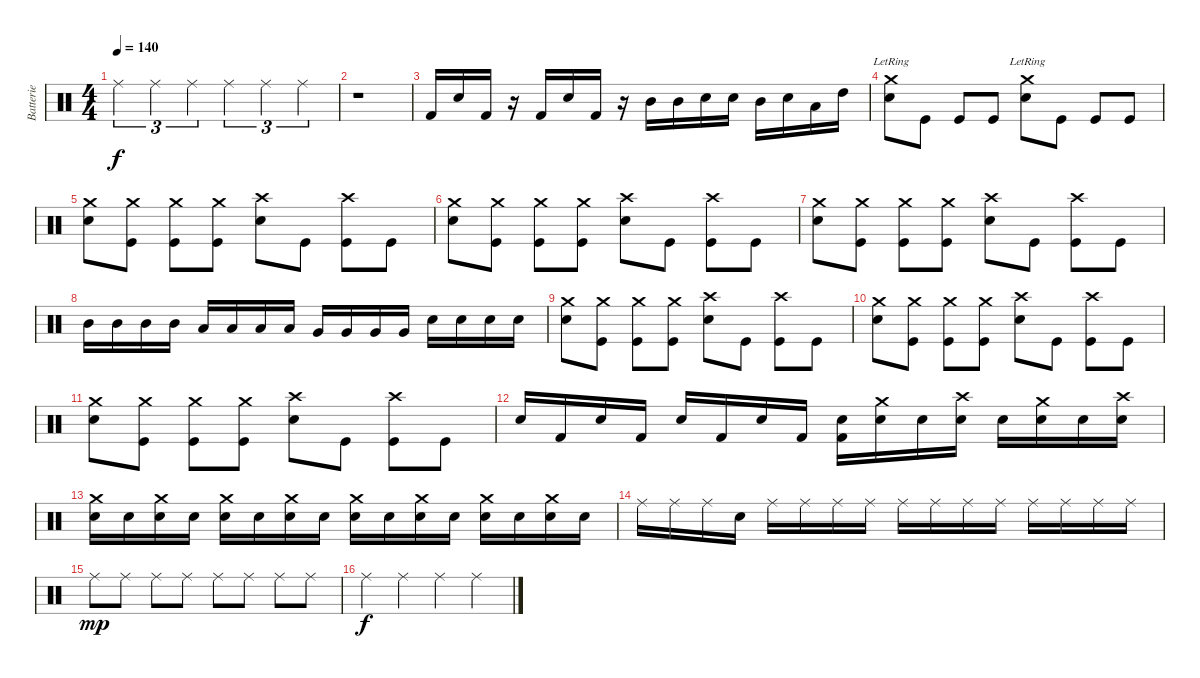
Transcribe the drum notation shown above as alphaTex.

\track ("Batterie" "Batterie") {instrument percussion}
\staff {score}
\articulation defaults
\ts (4 4)
\tempo 140
\clef neutral
\ks c "Ride (middle)".4{tu (3 2) dy f} "Ride (middle)".4{tu (3 2)} "Ride (middle)".4{tu (3 2)} "Ride (middle)".4{tu (3 2)} "Ride (middle)".4{tu (3 2)} "Ride (middle)".4{tu (3 2)}
|
r.1 |
"Kick (hit) 2".16 "Snare (hit) 2".16 "Kick (hit) 2".16 r.16 "Kick (hit) 2".16 "Snare (hit) 2".16 "Kick (hit) 2".16 r.16 "Mid Tom (hit)".16 "Mid Tom (hit)".16 "Snare (hit) 2".16 "Snare (hit) 2".16 "Mid Tom (hit)".16 "Snare (hit) 2".16 "Low Tom (hit)".16 "High Tom (hit)".16 |
("Crash medium (hit)"{lr} "Snare (hit) 2").8 "Kick (hit)".8 "Kick (hit)".8 "Kick (hit)".8 ("Crash medium (hit)"{lr} "Snare (hit) 2").8 "Kick (hit)".8 "Kick (hit)".8 "Kick (hit)".8 |
("Crash medium (hit)" "Snare (hit) 2").8 ("Crash medium (hit)" "Kick (hit)").8 ("Crash medium (hit)" "Kick (hit)").8 ("Crash medium (hit)" "Kick (hit)").8 ("Crash high (hit)" "Snare (hit) 2").8 "Kick (hit)".8 ("Crash high (hit)" "Kick (hit)").8 "Kick (hit)".8 |
("Crash medium (hit)" "Snare (hit) 2").8 ("Crash medium (hit)" "Kick (hit)").8 ("Crash medium (hit)" "Kick (hit)").8 ("Crash medium (hit)" "Kick (hit)").8 ("Crash high (hit)" "Snare (hit) 2").8 "Kick (hit)".8 ("Crash high (hit)" "Kick (hit)").8 "Kick (hit)".8 |
("Crash medium (hit)" "Snare (hit) 2").8 ("Crash medium (hit)" "Kick (hit)").8 ("Crash medium (hit)" "Kick (hit)").8 ("Crash medium (hit)" "Kick (hit)").8 ("Crash high (hit)" "Snare (hit) 2").8 "Kick (hit)".8 ("Crash high (hit)" "Kick (hit)").8 "Kick (hit)".8 |
"Mid Tom (hit)".16 "Mid Tom (hit)".16 "Mid Tom (hit)".16 "Mid Tom (hit)".16 "Low Tom (hit)".16 "Low Tom (hit)".16 "Low Tom (hit)".16 "Low Tom (hit)".16 "Very Low Tom (hit)".16 "Very Low Tom (hit)".16 "Very Low Tom (hit)".16 "Very Low Tom (hit)".16 "Snare (hit) 2".16 "Snare (hit) 2".16 "Snare (hit) 2".16 "Snare (hit) 2".16 |
("Crash medium (hit)" "Snare (hit) 2").8 ("Crash medium (hit)" "Kick (hit)").8 ("Crash medium (hit)" "Kick (hit)").8 ("Crash medium (hit)" "Kick (hit)").8 ("Crash high (hit)" "Snare (hit) 2").8 "Kick (hit)".8 ("Crash high (hit)" "Kick (hit)").8 "Kick (hit)".8 |
("Crash medium (hit)" "Snare (hit) 2").8 ("Crash medium (hit)" "Kick (hit)").8 ("Crash medium (hit)" "Kick (hit)").8 ("Crash medium (hit)" "Kick (hit)").8 ("Crash high (hit)" "Snare (hit) 2").8 "Kick (hit)".8 ("Crash high (hit)" "Kick (hit)").8 "Kick (hit)".8 |
("Crash medium (hit)" "Snare (hit) 2").8 ("Crash medium (hit)" "Kick (hit)").8 ("Crash medium (hit)" "Kick (hit)").8 ("Crash medium (hit)" "Kick (hit)").8 ("Crash high (hit)" "Snare (hit) 2").8 "Kick (hit)".8 ("Crash high (hit)" "Kick (hit)").8 "Kick (hit)".8 |
"Snare (hit) 2".16 "Kick (hit) 2".16 "Snare (hit) 2".16 "Kick (hit) 2".16 "Snare (hit) 2".16 "Kick (hit) 2".16 "Snare (hit) 2".16 "Kick (hit) 2".16 ("Snare (hit) 2" "Kick (hit) 2").16 ("Crash medium (hit)" "Snare (hit) 2").16 "Snare (hit) 2".16 ("Crash high (hit)" "Snare (hit) 2").16 "Snare (hit) 2".16 ("Crash medium (hit)" "Snare (hit) 2").16 "Snare (hit) 2".16 ("Crash high (hit)" "Snare (hit) 2").16 |
("Crash medium (hit)" "Snare (hit) 2").16 "Snare (hit) 2".16 ("Crash medium (hit)" "Snare (hit) 2").16 "Snare (hit) 2".16 ("Crash medium (hit)" "Snare (hit) 2").16 "Snare (hit) 2".16 ("Crash medium (hit)" "Snare (hit) 2").16 "Snare (hit) 2".16 ("Crash medium (hit)" "Snare (hit) 2").16 "Snare (hit) 2".16 ("Crash medium (hit)" "Snare (hit) 2").16 "Snare (hit) 2".16 ("Crash medium (hit)" "Snare (hit) 2").16 "Snare (hit) 2".16 ("Crash medium (hit)" "Snare (hit) 2").16 "Snare (hit) 2".16 |
"Ride (middle)".16 "Ride (middle)".16 "Ride (middle)".16 "Snare (hit)".16 "Ride (middle)".16 "Ride (middle)".16 "Ride (middle)".16 "Ride (middle)".16 "Ride (middle)".16 "Ride (middle)".16 "Ride (middle)".16 "Ride (middle)".16 "Ride (middle)".16 "Ride (middle)".16 "Ride (middle)".16 "Ride (middle)".16 |
"Ride (middle)".8{dy mp} "Ride (middle)".8 "Ride (middle)".8 "Ride (middle)".8 "Ride (middle)".8 "Ride (middle)".8 "Ride (middle)".8 "Ride (middle)".8 |
"Ride (middle)".4{dy f} "Ride (middle)".4 "Ride (middle)".4 "Ride (middle)".4
